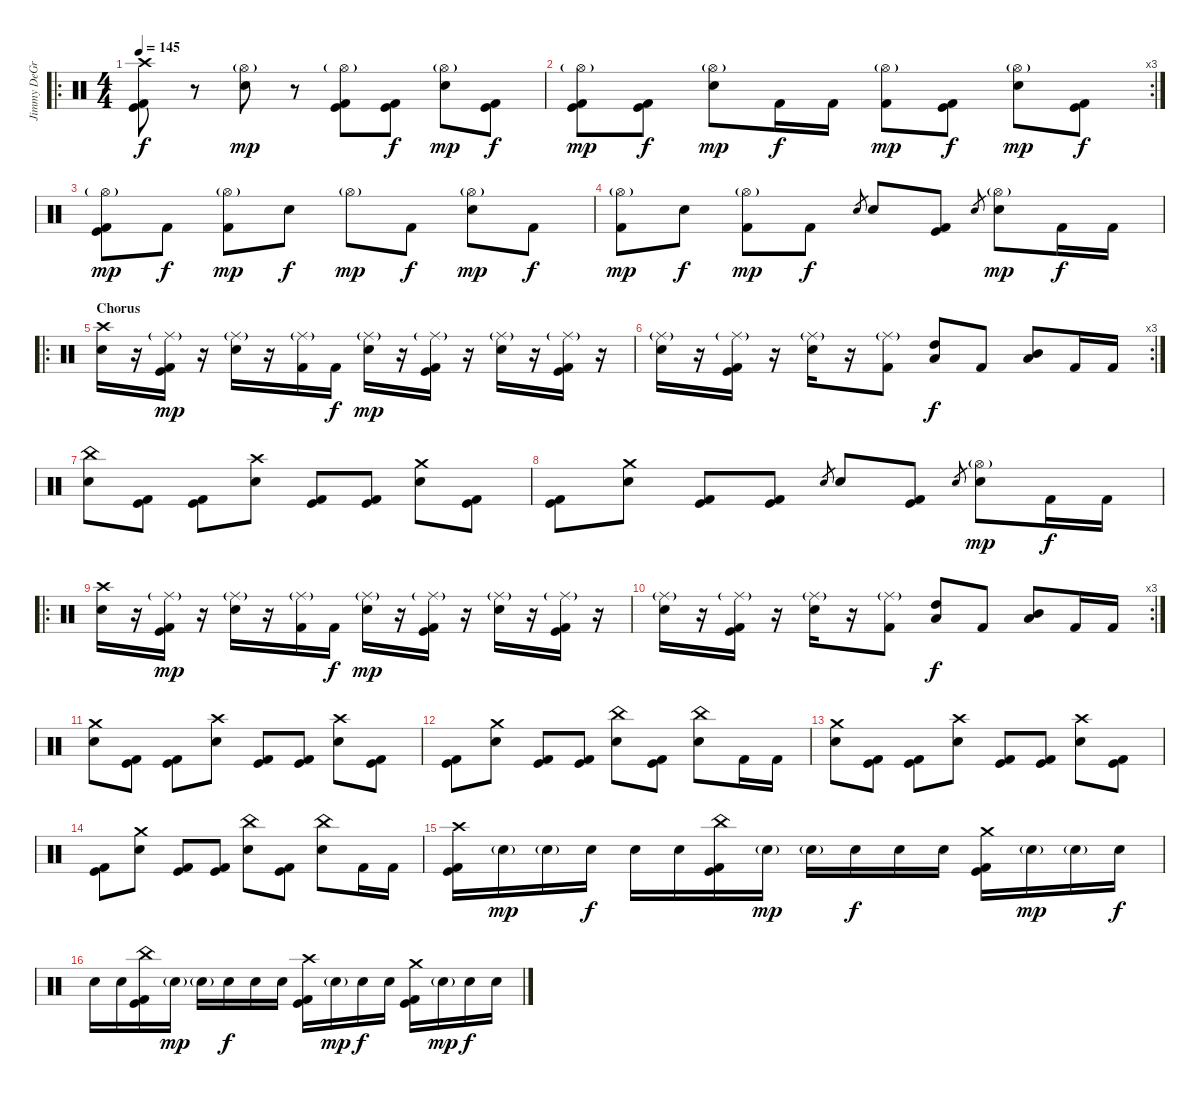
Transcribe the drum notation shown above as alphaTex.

\track ("Jimmy DeGrasso" "Jimmy DeGr") {instrument percussion}
\staff {score}
\articulation defaults
\ro
\ts (4 4)
\tempo 145
\clef neutral
\ks c
("Crash high (hit)" "Kick (hit)" "Kick (hit) 2").8{dy f} r.8 ("Hi-Hat (open)"{g} "Electric Snare (hit)").8{dy mp} r.8 ("Hi-Hat (open)"{g} "Kick (hit)" "Kick (hit) 2").8 ("Kick (hit)" "Kick (hit) 2").8{dy f} ("Hi-Hat (open)"{g} "Electric Snare (hit)").8{dy mp} ("Kick (hit)" "Kick (hit) 2").8{dy f} |
\rc 3
("Hi-Hat (open)"{g} "Kick (hit)" "Kick (hit) 2").8{dy mp} ("Kick (hit)" "Kick (hit) 2").8{dy f} ("Hi-Hat (open)"{g} "Electric Snare (hit)").8{dy mp} "Kick (hit) 2".16{dy f} "Kick (hit) 2".16 ("Hi-Hat (open)"{g} "Kick (hit) 2").8{dy mp} ("Kick (hit)" "Kick (hit) 2").8{dy f} ("Hi-Hat (open)"{g} "Electric Snare (hit)").8{dy mp} ("Kick (hit)" "Kick (hit) 2").8{dy f} |
("Hi-Hat (open)"{g} "Kick (hit)" "Kick (hit) 2").8{dy mp} "Kick (hit) 2".8{dy f} ("Hi-Hat (open)"{g} "Kick (hit) 2").8{dy mp} "Electric Snare (hit)".8{dy f} "Hi-Hat (open)"{g}.8{dy mp} "Kick (hit) 2".8{dy f} ("Hi-Hat (open)"{g} "Electric Snare (hit)").8{dy mp} "Kick (hit) 2".8{dy f} |
("Hi-Hat (open)"{g} "Kick (hit) 2").8{dy mp} "Electric Snare (hit)".8{dy f} ("Hi-Hat (open)"{g} "Kick (hit) 2").8{dy mp} "Kick (hit) 2".8{dy f} "Electric Snare (hit)".8{gr} "Electric Snare (hit)".8 ("Kick (hit)" "Kick (hit) 2").8 "Electric Snare (hit)".8{gr} ("Hi-Hat (open)"{g} "Electric Snare (hit)").8{dy mp} "Kick (hit) 2".16{dy f} "Kick (hit) 2".16 |
\ro
\section ("" "Chorus")
("Crash high (hit)" "Electric Snare (hit)").16 r.16 ("Ride (middle)"{g} "Kick (hit)" "Kick (hit) 2").16{dy mp} r.16 ("Ride (middle)"{g} "Electric Snare (hit)").16 r.16 ("Ride (middle)"{g} "Kick (hit) 2").16 "Kick (hit) 2".16{dy f} ("Ride (middle)"{g} "Electric Snare (hit)").16{dy mp} r.16 ("Ride (middle)"{g} "Kick (hit)" "Kick (hit) 2").16 r.16 ("Ride (middle)"{g} "Electric Snare (hit)").16 r.16 ("Ride (middle)"{g} "Kick (hit)" "Kick (hit) 2").16 r.16 |
\rc 3
("Ride (middle)"{g} "Electric Snare (hit)").16 r.16 ("Ride (middle)"{g} "Kick (hit)" "Kick (hit) 2").16 r.16 ("Ride (middle)"{g} "Electric Snare (hit)").16 r.16 ("Ride (middle)"{g} "Kick (hit) 2").8 ("High Tom (hit)" "Low Floor Tom (hit)").8{dy f} "Kick (hit) 2".8 ("Mid Tom (hit)" "Low Floor Tom (hit)").8 "Kick (hit) 2".16 "Kick (hit) 2".16 |
("China (hit)" "Electric Snare (hit)").8 ("Kick (hit)" "Kick (hit) 2").8 ("Kick (hit)" "Kick (hit) 2").8 ("Crash high (hit)" "Electric Snare (hit)").8 ("Kick (hit)" "Kick (hit) 2").8 ("Kick (hit)" "Kick (hit) 2").8 ("Crash medium (hit)" "Electric Snare (hit)").8 ("Kick (hit)" "Kick (hit) 2").8 |
("Kick (hit)" "Kick (hit) 2").8 ("Crash medium (hit)" "Electric Snare (hit)").8 ("Kick (hit)" "Kick (hit) 2").8 ("Kick (hit)" "Kick (hit) 2").8 "Electric Snare (hit)".8{gr} "Electric Snare (hit)".8 ("Kick (hit)" "Kick (hit) 2").8 "Electric Snare (hit)".8{gr} ("Hi-Hat (open)"{g} "Electric Snare (hit)").8{dy mp} "Kick (hit) 2".16{dy f} "Kick (hit) 2".16 |
\ro
("Crash high (hit)" "Electric Snare (hit)").16 r.16 ("Ride (middle)"{g} "Kick (hit)" "Kick (hit) 2").16{dy mp} r.16 ("Ride (middle)"{g} "Electric Snare (hit)").16 r.16 ("Ride (middle)"{g} "Kick (hit) 2").16 "Kick (hit) 2".16{dy f} ("Ride (middle)"{g} "Electric Snare (hit)").16{dy mp} r.16 ("Ride (middle)"{g} "Kick (hit)" "Kick (hit) 2").16 r.16 ("Ride (middle)"{g} "Electric Snare (hit)").16 r.16 ("Ride (middle)"{g} "Kick (hit)" "Kick (hit) 2").16 r.16 |
\rc 3
("Ride (middle)"{g} "Electric Snare (hit)").16 r.16 ("Ride (middle)"{g} "Kick (hit)" "Kick (hit) 2").16 r.16 ("Ride (middle)"{g} "Electric Snare (hit)").16 r.16 ("Ride (middle)"{g} "Kick (hit) 2").8 ("High Tom (hit)" "Low Floor Tom (hit)").8{dy f} "Kick (hit) 2".8 ("Mid Tom (hit)" "Low Floor Tom (hit)").8 "Kick (hit) 2".16 "Kick (hit) 2".16 |
("Crash medium (hit)" "Electric Snare (hit)").8 ("Kick (hit)" "Kick (hit) 2").8 ("Kick (hit)" "Kick (hit) 2").8 ("Crash high (hit)" "Electric Snare (hit)").8 ("Kick (hit)" "Kick (hit) 2").8 ("Kick (hit)" "Kick (hit) 2").8 ("Crash high (hit)" "Electric Snare (hit)").8 ("Kick (hit)" "Kick (hit) 2").8 |
("Kick (hit)" "Kick (hit) 2").8 ("Crash medium (hit)" "Electric Snare (hit)").8 ("Kick (hit)" "Kick (hit) 2").8 ("Kick (hit)" "Kick (hit) 2").8 ("China (hit)" "Electric Snare (hit)").8 ("Kick (hit)" "Kick (hit) 2").8 ("China (hit)" "Electric Snare (hit)").8 "Kick (hit) 2".16 "Kick (hit) 2".16 |
("Crash medium (hit)" "Electric Snare (hit)").8 ("Kick (hit)" "Kick (hit) 2").8 ("Kick (hit)" "Kick (hit) 2").8 ("Crash high (hit)" "Electric Snare (hit)").8 ("Kick (hit)" "Kick (hit) 2").8 ("Kick (hit)" "Kick (hit) 2").8 ("Crash high (hit)" "Electric Snare (hit)").8 ("Kick (hit)" "Kick (hit) 2").8 |
("Kick (hit)" "Kick (hit) 2").8 ("Crash medium (hit)" "Electric Snare (hit)").8 ("Kick (hit)" "Kick (hit) 2").8 ("Kick (hit)" "Kick (hit) 2").8 ("China (hit)" "Electric Snare (hit)").8 ("Kick (hit)" "Kick (hit) 2").8 ("China (hit)" "Electric Snare (hit)").8 "Kick (hit) 2".16 "Kick (hit) 2".16 |
("Crash high (hit)" "Kick (hit)" "Kick (hit) 2").16 "Electric Snare (hit)"{g}.16{dy mp} "Electric Snare (hit)"{g}.16 "Electric Snare (hit)".16{dy f} "Electric Snare (hit)".16 "Electric Snare (hit)".16 ("China (hit)" "Kick (hit)" "Kick (hit) 2").16 "Electric Snare (hit)"{g}.16{dy mp} "Electric Snare (hit)"{g}.16 "Electric Snare (hit)".16{dy f} "Electric Snare (hit)".16 "Electric Snare (hit)".16 ("Crash medium (hit)" "Kick (hit)" "Kick (hit) 2").16 "Electric Snare (hit)"{g}.16{dy mp} "Electric Snare (hit)"{g}.16 "Electric Snare (hit)".16{dy f} |
"Electric Snare (hit)".16 "Electric Snare (hit)".16 ("China (hit)" "Kick (hit)" "Kick (hit) 2").16 "Electric Snare (hit)"{g}.16{dy mp} "Electric Snare (hit)"{g}.16 "Electric Snare (hit)".16{dy f} "Electric Snare (hit)".16 "Electric Snare (hit)".16 ("Crash high (hit)" "Kick (hit)" "Kick (hit) 2").16 "Electric Snare (hit)"{g}.16{dy mp} "Electric Snare (hit)".16{dy f} "Electric Snare (hit)".16 ("Crash medium (hit)" "Kick (hit)" "Kick (hit) 2").16 "Electric Snare (hit)"{g}.16{dy mp} "Electric Snare (hit)".16{dy f} "Electric Snare (hit)".16
